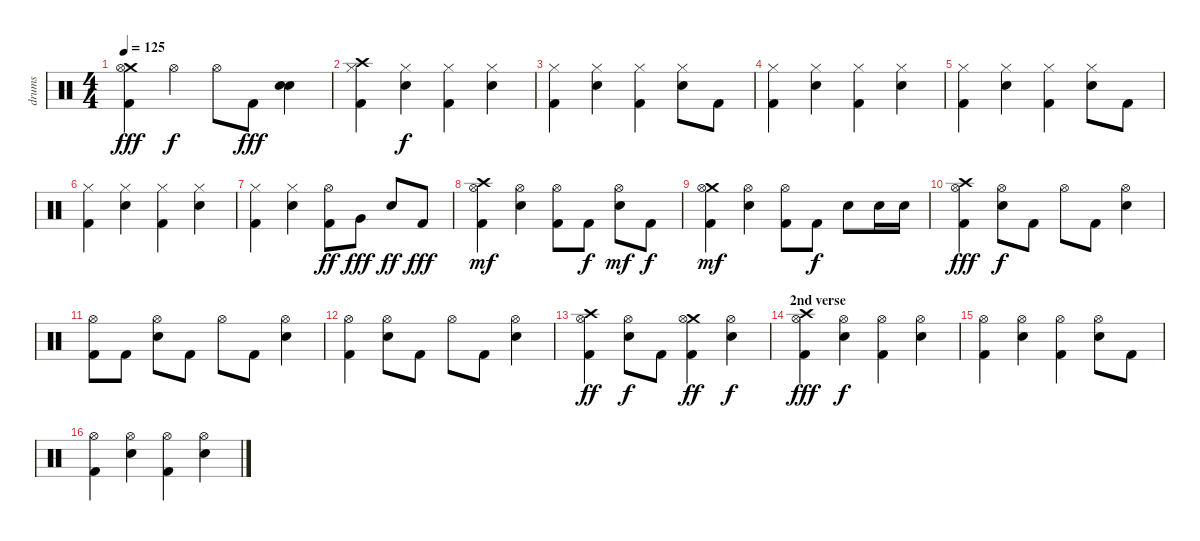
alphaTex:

\track ("drums" "drums") {instrument percussion}
\staff {score}
\articulation defaults
\ts (4 4)
\tempo 125
\clef neutral
\ks c
("Kick (hit) 2" "Crash medium (hit)" "Hi-Hat (open)").4{dy fff} "Hi-Hat (open)".4{dy f} "Hi-Hat (open)".8 "Kick (hit) 2".8{dy fff} ("Electric Snare (hit)" "Snare (hit) 2").4 |
("Kick (hit) 2" "Crash high (hit)" "Hi-Hat (closed)").4 ("Hi-Hat (closed)" "Snare (hit) 2").4{dy f} ("Kick (hit) 2" "Hi-Hat (closed)").4 ("Hi-Hat (closed)" "Snare (hit) 2").4 |
("Kick (hit) 2" "Hi-Hat (closed)").4 ("Hi-Hat (closed)" "Snare (hit) 2").4 ("Kick (hit) 2" "Hi-Hat (closed)").4 ("Hi-Hat (closed)" "Snare (hit) 2").8 "Kick (hit) 2".8 |
("Kick (hit) 2" "Hi-Hat (closed)").4 ("Hi-Hat (closed)" "Snare (hit) 2").4 ("Kick (hit) 2" "Hi-Hat (closed)").4 ("Hi-Hat (closed)" "Snare (hit) 2").4 |
("Kick (hit) 2" "Hi-Hat (closed)").4 ("Hi-Hat (closed)" "Snare (hit) 2").4 ("Kick (hit) 2" "Hi-Hat (closed)").4 ("Hi-Hat (closed)" "Snare (hit) 2").8 "Kick (hit) 2".8 |
("Kick (hit) 2" "Hi-Hat (closed)").4 ("Hi-Hat (closed)" "Snare (hit) 2").4 ("Kick (hit) 2" "Hi-Hat (closed)").4 ("Hi-Hat (closed)" "Snare (hit) 2").4 |
("Kick (hit) 2" "Hi-Hat (closed)").4 ("Hi-Hat (closed)" "Snare (hit) 2").4 ("Kick (hit) 2" "Hi-Hat (open)").8{dy ff} "Very Low Tom (hit)".8{dy fff} "Snare (hit) 2".8{dy ff} "Kick (hit) 2".8{dy fff} |
("Kick (hit) 2" "Crash high (hit)" "Hi-Hat (open)").4{dy mf} ("Hi-Hat (open)" "Snare (hit) 2").4 ("Kick (hit) 2" "Hi-Hat (open)").8 "Kick (hit) 2".8{dy f} ("Hi-Hat (open)" "Snare (hit) 2").8{dy mf} "Kick (hit) 2".8{dy f} |
("Kick (hit) 2" "Crash medium (hit)" "Hi-Hat (open)").4{dy mf} ("Hi-Hat (open)" "Snare (hit) 2").4 ("Kick (hit) 2" "Hi-Hat (open)").8 "Kick (hit) 2".8{dy f} "Snare (hit) 2".8 "Snare (hit) 2".16 "Snare (hit) 2".16 |
("Kick (hit) 2" "Crash high (hit)" "Hi-Hat (open)").4{dy fff} ("Hi-Hat (open)" "Snare (hit) 2").8{dy f} "Kick (hit) 2".8 "Hi-Hat (open)".8 "Kick (hit) 2".8 ("Hi-Hat (open)" "Snare (hit) 2").4 |
("Kick (hit) 2" "Hi-Hat (open)").8 "Kick (hit) 2".8 ("Hi-Hat (open)" "Snare (hit) 2").8 "Kick (hit) 2".8 "Hi-Hat (open)".8 "Kick (hit) 2".8 ("Hi-Hat (open)" "Snare (hit) 2").4 |
("Kick (hit) 2" "Hi-Hat (open)").4 ("Hi-Hat (open)" "Snare (hit) 2").8 "Kick (hit) 2".8 "Hi-Hat (open)".8 "Kick (hit) 2".8 ("Hi-Hat (open)" "Snare (hit) 2").4 |
("Kick (hit) 2" "Crash high (hit)" "Hi-Hat (open)").4{dy ff} ("Hi-Hat (open)" "Snare (hit) 2").8{dy f} "Kick (hit) 2".8 ("Kick (hit) 2" "Crash medium (hit)" "Hi-Hat (open)").4{dy ff} ("Hi-Hat (open)" "Snare (hit) 2").4{dy f} |
\section ("" "2nd verse")
("Kick (hit) 2" "Crash high (hit)" "Hi-Hat (open)").4{dy fff} ("Hi-Hat (open)" "Snare (hit) 2").4{dy f} ("Kick (hit) 2" "Hi-Hat (open)").4 ("Hi-Hat (open)" "Snare (hit) 2").4 |
("Kick (hit) 2" "Hi-Hat (open)").4 ("Hi-Hat (open)" "Snare (hit) 2").4 ("Kick (hit) 2" "Hi-Hat (open)").4 ("Hi-Hat (open)" "Snare (hit) 2").8 "Kick (hit) 2".8 |
("Kick (hit) 2" "Hi-Hat (open)").4 ("Hi-Hat (open)" "Snare (hit) 2").4 ("Kick (hit) 2" "Hi-Hat (open)").4 ("Hi-Hat (open)" "Snare (hit) 2").4
